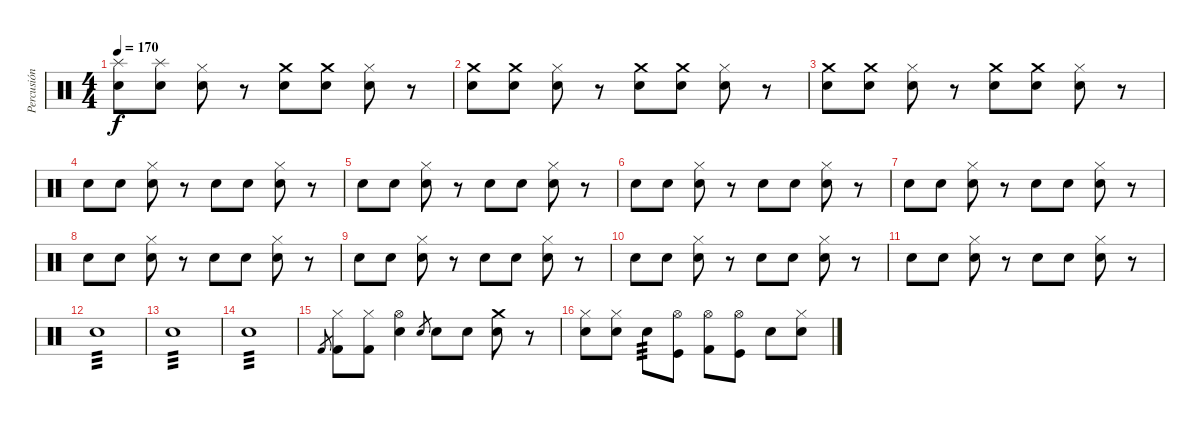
\track ("Percusión" "Percusión") {instrument percussion}
\staff {score}
\articulation defaults
\ts (4 4)
\tempo 170
\clef neutral
\ks c
("Electric Snare (hit)" "Splash (hit)").8{dy f} ("Electric Snare (hit)" "Splash (hit)").8 ("Hi-Hat (closed)" "Snare (hit) 2").8 r.8 ("Electric Snare (hit)" "Crash medium (hit)").8 ("Electric Snare (hit)" "Crash medium (hit)").8 ("Hi-Hat (closed)" "Snare (hit) 2").8 r.8 |
("Electric Snare (hit)" "Crash medium (hit)").8 ("Electric Snare (hit)" "Crash medium (hit)").8 ("Hi-Hat (closed)" "Snare (hit) 2").8 r.8 ("Electric Snare (hit)" "Crash medium (hit)").8 ("Electric Snare (hit)" "Crash medium (hit)").8 ("Hi-Hat (closed)" "Snare (hit) 2").8 r.8 |
("Electric Snare (hit)" "Crash medium (hit)").8 ("Electric Snare (hit)" "Crash medium (hit)").8 ("Hi-Hat (closed)" "Snare (hit) 2").8 r.8 ("Electric Snare (hit)" "Crash medium (hit)").8 ("Electric Snare (hit)" "Crash medium (hit)").8 ("Hi-Hat (closed)" "Snare (hit) 2").8 r.8 |
"Electric Snare (hit)".8 "Electric Snare (hit)".8 ("Hi-Hat (closed)" "Snare (hit) 2").8 r.8 "Electric Snare (hit)".8 "Electric Snare (hit)".8 ("Hi-Hat (closed)" "Snare (hit) 2").8 r.8 |
"Electric Snare (hit)".8 "Electric Snare (hit)".8 ("Hi-Hat (closed)" "Snare (hit) 2").8 r.8 "Electric Snare (hit)".8 "Electric Snare (hit)".8 ("Hi-Hat (closed)" "Snare (hit) 2").8 r.8 |
"Electric Snare (hit)".8 "Electric Snare (hit)".8 ("Hi-Hat (closed)" "Snare (hit) 2").8 r.8 "Electric Snare (hit)".8 "Electric Snare (hit)".8 ("Hi-Hat (closed)" "Snare (hit) 2").8 r.8 |
"Electric Snare (hit)".8 "Electric Snare (hit)".8 ("Hi-Hat (closed)" "Snare (hit) 2").8 r.8 "Electric Snare (hit)".8 "Electric Snare (hit)".8 ("Hi-Hat (closed)" "Snare (hit) 2").8 r.8 |
"Electric Snare (hit)".8 "Electric Snare (hit)".8 ("Hi-Hat (closed)" "Snare (hit) 2").8 r.8 "Electric Snare (hit)".8 "Electric Snare (hit)".8 ("Hi-Hat (closed)" "Snare (hit) 2").8 r.8 |
"Electric Snare (hit)".8 "Electric Snare (hit)".8 ("Hi-Hat (closed)" "Snare (hit) 2").8 r.8 "Electric Snare (hit)".8 "Electric Snare (hit)".8 ("Hi-Hat (closed)" "Snare (hit) 2").8 r.8 |
"Electric Snare (hit)".8 "Electric Snare (hit)".8 ("Hi-Hat (closed)" "Snare (hit) 2").8 r.8 "Electric Snare (hit)".8 "Electric Snare (hit)".8 ("Hi-Hat (closed)" "Snare (hit) 2").8 r.8 |
"Electric Snare (hit)".8 "Electric Snare (hit)".8 ("Hi-Hat (closed)" "Snare (hit) 2").8 r.8 "Electric Snare (hit)".8 "Electric Snare (hit)".8 ("Hi-Hat (closed)" "Snare (hit) 2").8 r.8 |
"Electric Snare (hit)".1{tp 3} |
"Electric Snare (hit)".1{tp 3} |
"Electric Snare (hit)".1{tp 3} |
"Kick (hit) 2".8{gr} ("Hi-Hat (closed)" "Kick (hit) 2").8 ("Hi-Hat (closed)" "Kick (hit) 2").8 ("Hi-Hat (open)" "Snare (hit) 2").4 "Electric Snare (hit)".8{gr} "Electric Snare (hit)".8 "Electric Snare (hit)".8 ("Crash medium (hit)" "Electric Snare (hit)").8 r.8 |
("Hi-Hat (closed)" "Electric Snare (hit)").8 ("Hi-Hat (closed)" "Electric Snare (hit)").8 "Snare (hit) 2".8{tp 3} ("Hi-Hat (open)" "Kick (hit)").8 ("Hi-Hat (open)" "Kick (hit) 2").8 ("Hi-Hat (open)" "Kick (hit)").8 "Electric Snare (hit)".8 ("Hi-Hat (closed)" "Electric Snare (hit)").8
